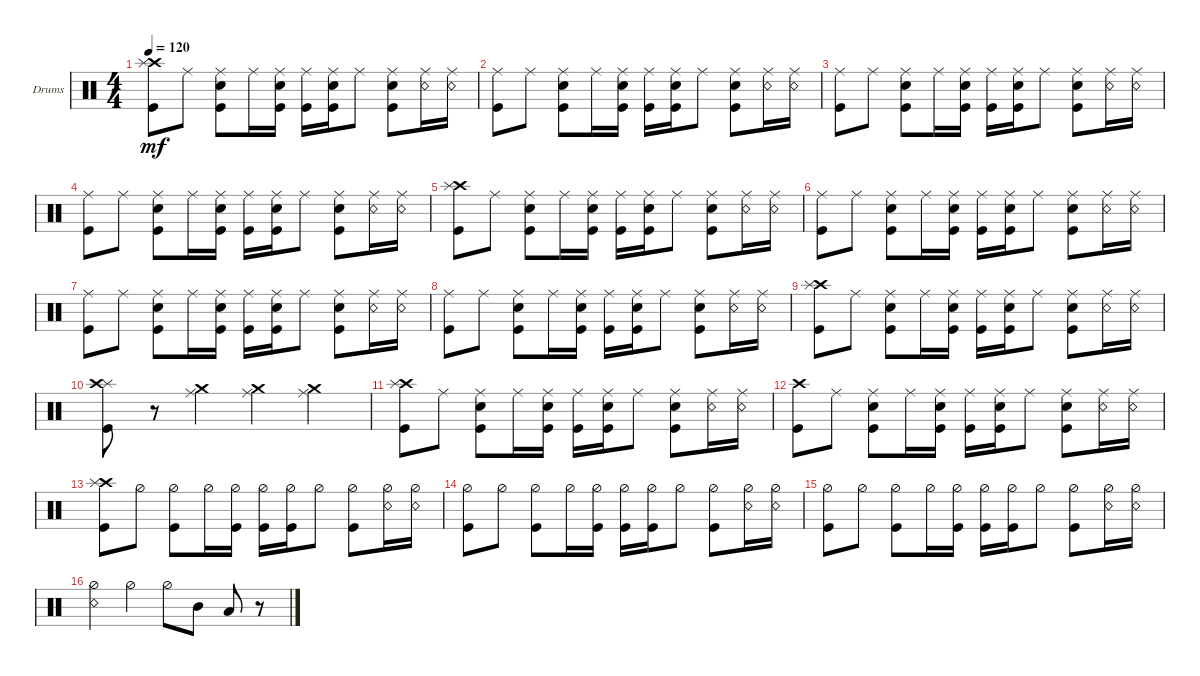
\defaultSystemsLayout 4
\bracketExtendMode groupsimilarinstruments
\firstSystemTrackNameOrientation horizontal
\otherSystemsTrackNameOrientation horizontal
\track ("Нюта" "Drums") {instrument percussion}
\staff {score}
\articulation defaults
\ts (4 4)
\tempo 120
\clef neutral
\scale
0.333333
\ks c
("Crash high (hit)" "Kick (hit)" "Splash (hit)").8{dy mf} "Ride (middle)".8 ("Ride (middle)" "Kick (hit)" "Snare (hit) 2").8 "Ride (middle)".16 ("Ride (middle)" "Kick (hit)" "Snare (hit) 2").16 ("Ride (middle)" "Kick (hit)").16 ("Ride (middle)" "Kick (hit)" "Snare (hit) 2").16 "Ride (middle)".8 ("Snare (hit) 2" "Ride (middle)" "Kick (hit)").8 ("Snare (rim shot)" "Ride (middle)").16 ("Snare (rim shot)" "Ride (middle)").16 |
\scale
0.333333 ("Kick (hit)" "Ride (middle)").8 "Ride (middle)".8 ("Ride (middle)" "Kick (hit)" "Snare (hit) 2").8 "Ride (middle)".16 ("Ride (middle)" "Kick (hit)" "Snare (hit) 2").16 ("Ride (middle)" "Kick (hit)").16 ("Ride (middle)" "Kick (hit)" "Snare (hit) 2").16 "Ride (middle)".8 ("Snare (hit) 2" "Ride (middle)" "Kick (hit)").8 ("Snare (rim shot)" "Ride (middle)").16 ("Snare (rim shot)" "Ride (middle)").16 |
\scale
0.333333 ("Kick (hit)" "Ride (middle)").8 "Ride (middle)".8 ("Ride (middle)" "Kick (hit)" "Snare (hit) 2").8 "Ride (middle)".16 ("Ride (middle)" "Kick (hit)" "Snare (hit) 2").16 ("Ride (middle)" "Kick (hit)").16 ("Ride (middle)" "Kick (hit)" "Snare (hit) 2").16 "Ride (middle)".8 ("Snare (hit) 2" "Ride (middle)" "Kick (hit)").8 ("Snare (rim shot)" "Ride (middle)").16 ("Snare (rim shot)" "Ride (middle)").16 |
\scale
0.333333 ("Kick (hit)" "Ride (middle)").8 "Ride (middle)".8 ("Ride (middle)" "Kick (hit)" "Snare (hit) 2").8 "Ride (middle)".16 ("Ride (middle)" "Kick (hit)" "Snare (hit) 2").16 ("Ride (middle)" "Kick (hit)").16 ("Ride (middle)" "Kick (hit)" "Snare (hit) 2").16 "Ride (middle)".8 ("Snare (hit) 2" "Ride (middle)" "Kick (hit)").8 ("Snare (rim shot)" "Ride (middle)").16 ("Snare (rim shot)" "Ride (middle)").16 |
\scale
0.333333 ("Crash high (hit)" "Kick (hit)" "Splash (hit)").8 "Ride (middle)".8 ("Ride (middle)" "Kick (hit)" "Snare (hit) 2").8 "Ride (middle)".16 ("Ride (middle)" "Kick (hit)" "Snare (hit) 2").16 ("Ride (middle)" "Kick (hit)").16 ("Ride (middle)" "Kick (hit)" "Snare (hit) 2").16 "Ride (middle)".8 ("Snare (hit) 2" "Ride (middle)" "Kick (hit)").8 ("Snare (rim shot)" "Ride (middle)").16 ("Snare (rim shot)" "Ride (middle)").16 |
\scale
0.333333 ("Kick (hit)" "Ride (middle)").8 "Ride (middle)".8 ("Ride (middle)" "Kick (hit)" "Snare (hit) 2").8 "Ride (middle)".16 ("Ride (middle)" "Kick (hit)" "Snare (hit) 2").16 ("Ride (middle)" "Kick (hit)").16 ("Ride (middle)" "Kick (hit)" "Snare (hit) 2").16 "Ride (middle)".8 ("Snare (hit) 2" "Ride (middle)" "Kick (hit)").8 ("Snare (rim shot)" "Ride (middle)").16 ("Snare (rim shot)" "Ride (middle)").16 |
\scale
0.333333 ("Kick (hit)" "Ride (middle)").8 "Ride (middle)".8 ("Ride (middle)" "Kick (hit)" "Snare (hit) 2").8 "Ride (middle)".16 ("Ride (middle)" "Kick (hit)" "Snare (hit) 2").16 ("Ride (middle)" "Kick (hit)").16 ("Ride (middle)" "Kick (hit)" "Snare (hit) 2").16 "Ride (middle)".8 ("Snare (hit) 2" "Ride (middle)" "Kick (hit)").8 ("Snare (rim shot)" "Ride (middle)").16 ("Snare (rim shot)" "Ride (middle)").16 |
\scale
0.333333 ("Kick (hit)" "Ride (middle)").8 "Ride (middle)".8 ("Ride (middle)" "Kick (hit)" "Snare (hit) 2").8 "Ride (middle)".16 ("Ride (middle)" "Kick (hit)" "Snare (hit) 2").16 ("Ride (middle)" "Kick (hit)").16 ("Ride (middle)" "Kick (hit)" "Snare (hit) 2").16 "Ride (middle)".8 ("Snare (hit) 2" "Ride (middle)" "Kick (hit)").8 ("Snare (rim shot)" "Ride (middle)").16 ("Snare (rim shot)" "Ride (middle)").16 |
("Crash high (hit)" "Kick (hit)" "Splash (hit)").8 "Ride (middle)".8 ("Ride (middle)" "Kick (hit)" "Snare (hit) 2").8 "Ride (middle)".16 ("Ride (middle)" "Kick (hit)" "Snare (hit) 2").16 ("Ride (middle)" "Kick (hit)").16 ("Ride (middle)" "Kick (hit)" "Snare (hit) 2").16 "Ride (middle)".8 ("Snare (hit) 2" "Ride (middle)" "Kick (hit)").8 ("Snare (rim shot)" "Ride (middle)").16 ("Snare (rim shot)" "Ride (middle)").16 |
("Kick (hit)" "Splash (hit)" "Crash high (hit)").8 r.8 ("Ride (middle)" "Crash medium (hit)").4 ("Ride (middle)" "Crash medium (hit)").4 ("Ride (middle)" "Crash medium (hit)").4 |
("Kick (hit)" "Crash high (hit)" "Splash (hit)").8 "Ride (middle)".8 ("Ride (middle)" "Kick (hit)" "Snare (hit) 2").8 "Ride (middle)".16 ("Ride (middle)" "Kick (hit)" "Snare (hit) 2").16 ("Ride (middle)" "Kick (hit)").16 ("Ride (middle)" "Kick (hit)" "Snare (hit) 2").16 "Ride (middle)".8 ("Snare (hit) 2" "Ride (middle)" "Kick (hit)").8 ("Snare (rim shot)" "Ride (middle)").16 ("Snare (rim shot)" "Ride (middle)").16 |
("Crash high (hit)" "Kick (hit)").8 "Ride (middle)".8 ("Ride (middle)" "Kick (hit)" "Snare (hit) 2").8 "Ride (middle)".16 ("Ride (middle)" "Kick (hit)" "Snare (hit) 2").16 ("Ride (middle)" "Kick (hit)").16 ("Ride (middle)" "Kick (hit)" "Snare (hit) 2").16 "Ride (middle)".8 ("Snare (hit) 2" "Ride (middle)" "Kick (hit)").8 ("Snare (rim shot)" "Ride (middle)").16 ("Snare (rim shot)" "Ride (middle)").16 |
("Crash high (hit)" "Kick (hit)" "Splash (hit)").8 "Hi-Hat (half)".8 ("Kick (hit)" "Hi-Hat (half)").8 "Hi-Hat (half)".16 ("Kick (hit)" "Hi-Hat (half)").16 ("Kick (hit)" "Hi-Hat (half)").16 ("Kick (hit)" "Hi-Hat (half)").16 "Hi-Hat (half)".8 ("Kick (hit)" "Hi-Hat (half)").8 ("Snare (rim shot)" "Hi-Hat (half)").16 ("Snare (rim shot)" "Hi-Hat (half)").16 |
("Kick (hit)" "Hi-Hat (half)").8 "Hi-Hat (half)".8 ("Kick (hit)" "Hi-Hat (half)").8 "Hi-Hat (half)".16 ("Kick (hit)" "Hi-Hat (half)").16 ("Kick (hit)" "Hi-Hat (half)").16 ("Kick (hit)" "Hi-Hat (half)").16 "Hi-Hat (half)".8 ("Kick (hit)" "Hi-Hat (half)").8 ("Snare (rim shot)" "Hi-Hat (half)").16 ("Snare (rim shot)" "Hi-Hat (half)").16 |
("Kick (hit)" "Hi-Hat (half)").8 "Hi-Hat (half)".8 ("Kick (hit)" "Hi-Hat (half)").8 "Hi-Hat (half)".16 ("Kick (hit)" "Hi-Hat (half)").16 ("Kick (hit)" "Hi-Hat (half)").16 ("Kick (hit)" "Hi-Hat (half)").16 "Hi-Hat (half)".8 ("Kick (hit)" "Hi-Hat (half)").8 ("Snare (rim shot)" "Hi-Hat (half)").16 ("Snare (rim shot)" "Hi-Hat (half)").16 |
("Snare (rim shot)" "Hi-Hat (half)").4 "Hi-Hat (half)".4 "Hi-Hat (half)".8 "Mid Tom (hit)".8 "Low Tom (hit)".8 r.8
